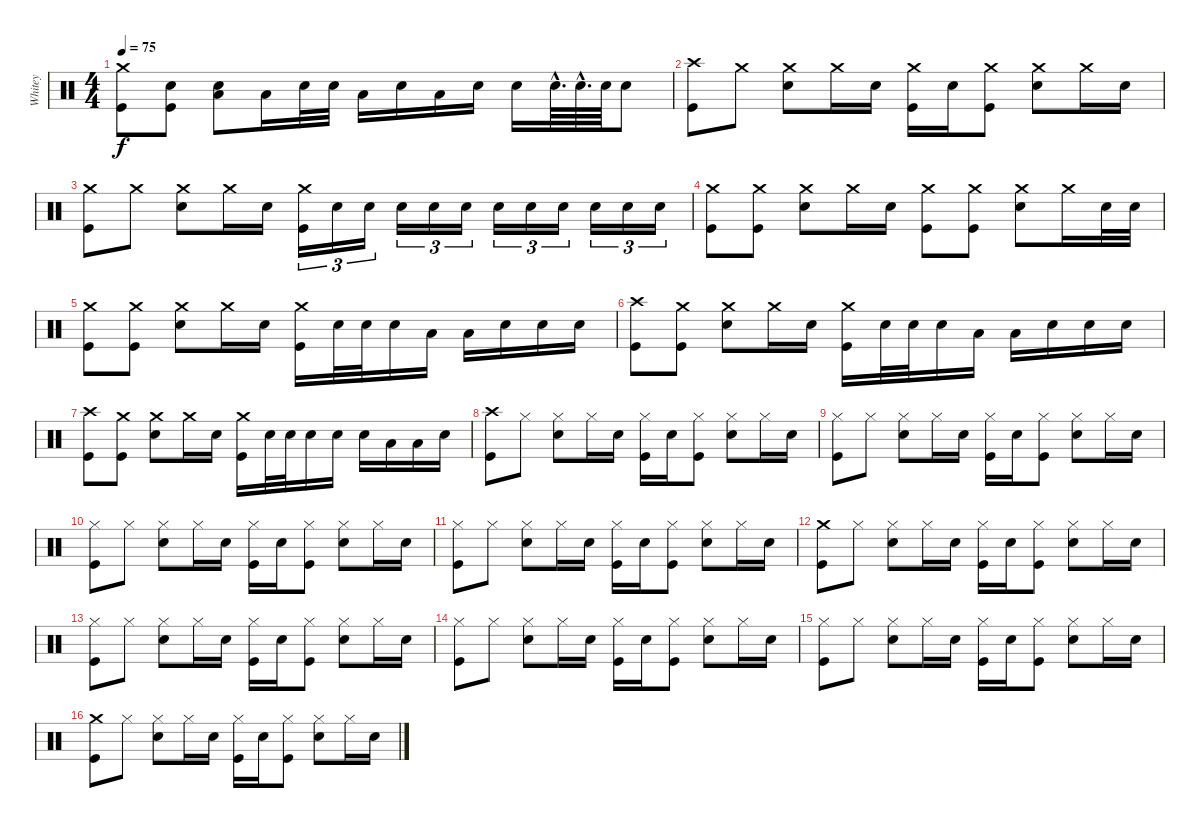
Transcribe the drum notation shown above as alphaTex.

\track ("Whitey" "Whitey") {instrument percussion}
\staff {score}
\articulation defaults
\ts (4 4)
\tempo 75
\clef neutral
\ks c
("Crash medium (hit)" "Kick (hit)").8{dy f} ("Snare (hit) 2" "Kick (hit)").8 ("Low Tom (hit)" "Snare (hit) 2").8 "Low Tom (hit)".16 "Snare (hit) 2".32 "Snare (hit) 2".32 "Low Tom (hit)".16 "Snare (hit) 2".16 "Low Tom (hit)".16 "Snare (hit) 2".16 "Snare (hit) 2".16 "Snare (hit) 2"{hac}.64{d} "Snare (hit) 2"{hac}.64{d} "Snare (hit) 2".64 "Snare (hit) 2".8 |
("Crash high (hit)" "Kick (hit)").8 "Crash medium (hit)".8 ("Crash medium (hit)" "Snare (hit) 2").8 "Crash medium (hit)".16 "Snare (hit) 2".16 ("Crash medium (hit)" "Kick (hit)").16 "Snare (hit) 2".16 ("Crash medium (hit)" "Kick (hit)").8 ("Crash medium (hit)" "Snare (hit) 2").8 "Crash medium (hit)".16 "Snare (hit) 2".16 |
("Crash medium (hit)" "Kick (hit)").8 "Crash medium (hit)".8 ("Crash medium (hit)" "Snare (hit) 2").8 "Crash medium (hit)".16 "Snare (hit) 2".16 ("Crash medium (hit)" "Kick (hit)").16{tu (3 2)} "Snare (hit) 2".16{tu (3 2)} "Snare (hit) 2".16{tu (3 2)} "Snare (hit) 2".16{tu (3 2)} "Snare (hit) 2".16{tu (3 2)} "Snare (hit) 2".16{tu (3 2)} "Snare (hit) 2".16{tu (3 2)} "Snare (hit) 2".16{tu (3 2)} "Snare (hit) 2".16{tu (3 2)} "Snare (hit) 2".16{tu (3 2)} "Snare (hit) 2".16{tu (3 2)} "Snare (hit) 2".16{tu (3 2)} |
("Crash medium (hit)" "Kick (hit)").8 ("Crash medium (hit)" "Kick (hit)").8 ("Crash medium (hit)" "Snare (hit) 2").8 "Crash medium (hit)".16 "Snare (hit) 2".16 ("Crash medium (hit)" "Kick (hit)").8 ("Crash medium (hit)" "Kick (hit)").8 ("Crash medium (hit)" "Snare (hit) 2").8 "Crash medium (hit)".16 "Snare (hit) 2".32 "Snare (hit) 2".32 |
("Crash medium (hit)" "Kick (hit)").8 ("Crash medium (hit)" "Kick (hit)").8 ("Crash medium (hit)" "Snare (hit) 2").8 "Crash medium (hit)".16 "Snare (hit) 2".16 ("Crash medium (hit)" "Kick (hit)").16 "Snare (hit) 2".32 "Snare (hit) 2".32 "Snare (hit) 2".16 "Low Tom (hit)".16 "Low Tom (hit)".16 "Snare (hit) 2".16 "Snare (hit) 2".16 "Snare (hit) 2".16 |
("Crash high (hit)" "Kick (hit)").8 ("Crash medium (hit)" "Kick (hit)").8 ("Crash medium (hit)" "Snare (hit) 2").8 "Crash medium (hit)".16 "Snare (hit) 2".16 ("Crash medium (hit)" "Kick (hit)").16 "Snare (hit) 2".32 "Snare (hit) 2".32 "Snare (hit) 2".16 "Low Tom (hit)".16 "Low Tom (hit)".16 "Snare (hit) 2".16 "Snare (hit) 2".16 "Snare (hit) 2".16 |
("Crash high (hit)" "Kick (hit)").8 ("Crash medium (hit)" "Kick (hit)").8 ("Crash medium (hit)" "Snare (hit) 2").8 "Crash medium (hit)".16 "Snare (hit) 2".16 ("Crash medium (hit)" "Kick (hit)").16 "Snare (hit) 2".32 "Snare (hit) 2".32 "Snare (hit) 2".16 "Snare (hit) 2".16 "Snare (hit) 2".16 "Low Tom (hit)".16 "Low Tom (hit)".16 "Snare (hit) 2".16 |
("Crash high (hit)" "Kick (hit)").8 "Hi-Hat (closed)".8 ("Hi-Hat (closed)" "Snare (hit) 2").8 "Hi-Hat (closed)".16 "Snare (hit) 2".16 ("Hi-Hat (closed)" "Kick (hit)").16 "Snare (hit) 2".16 ("Hi-Hat (closed)" "Kick (hit)").8 ("Hi-Hat (closed)" "Snare (hit) 2").8 "Hi-Hat (closed)".16 "Snare (hit) 2".16 |
("Hi-Hat (closed)" "Kick (hit)").8 "Hi-Hat (closed)".8 ("Hi-Hat (closed)" "Snare (hit) 2").8 "Hi-Hat (closed)".16 "Snare (hit) 2".16 ("Hi-Hat (closed)" "Kick (hit)").16 "Snare (hit) 2".16 ("Hi-Hat (closed)" "Kick (hit)").8 ("Hi-Hat (closed)" "Snare (hit) 2").8 "Hi-Hat (closed)".16 "Snare (hit) 2".16 |
("Hi-Hat (closed)" "Kick (hit)").8 "Hi-Hat (closed)".8 ("Hi-Hat (closed)" "Snare (hit) 2").8 "Hi-Hat (closed)".16 "Snare (hit) 2".16 ("Hi-Hat (closed)" "Kick (hit)").16 "Snare (hit) 2".16 ("Hi-Hat (closed)" "Kick (hit)").8 ("Hi-Hat (closed)" "Snare (hit) 2").8 "Hi-Hat (closed)".16 "Snare (hit) 2".16 |
("Hi-Hat (closed)" "Kick (hit)").8 "Hi-Hat (closed)".8 ("Hi-Hat (closed)" "Snare (hit) 2").8 "Hi-Hat (closed)".16 "Snare (hit) 2".16 ("Hi-Hat (closed)" "Kick (hit)").16 "Snare (hit) 2".16 ("Hi-Hat (closed)" "Kick (hit)").8 ("Hi-Hat (closed)" "Snare (hit) 2").8 "Hi-Hat (closed)".16 "Snare (hit) 2".16 |
("Crash medium (hit)" "Kick (hit)").8 "Hi-Hat (closed)".8 ("Hi-Hat (closed)" "Snare (hit) 2").8 "Hi-Hat (closed)".16 "Snare (hit) 2".16 ("Hi-Hat (closed)" "Kick (hit)").16 "Snare (hit) 2".16 ("Hi-Hat (closed)" "Kick (hit)").8 ("Hi-Hat (closed)" "Snare (hit) 2").8 "Hi-Hat (closed)".16 "Snare (hit) 2".16 |
("Hi-Hat (closed)" "Kick (hit)").8 "Hi-Hat (closed)".8 ("Hi-Hat (closed)" "Snare (hit) 2").8 "Hi-Hat (closed)".16 "Snare (hit) 2".16 ("Hi-Hat (closed)" "Kick (hit)").16 "Snare (hit) 2".16 ("Hi-Hat (closed)" "Kick (hit)").8 ("Hi-Hat (closed)" "Snare (hit) 2").8 "Hi-Hat (closed)".16 "Snare (hit) 2".16 |
("Hi-Hat (closed)" "Kick (hit)").8 "Hi-Hat (closed)".8 ("Hi-Hat (closed)" "Snare (hit) 2").8 "Hi-Hat (closed)".16 "Snare (hit) 2".16 ("Hi-Hat (closed)" "Kick (hit)").16 "Snare (hit) 2".16 ("Hi-Hat (closed)" "Kick (hit)").8 ("Hi-Hat (closed)" "Snare (hit) 2").8 "Hi-Hat (closed)".16 "Snare (hit) 2".16 |
("Hi-Hat (closed)" "Kick (hit)").8 "Hi-Hat (closed)".8 ("Hi-Hat (closed)" "Snare (hit) 2").8 "Hi-Hat (closed)".16 "Snare (hit) 2".16 ("Hi-Hat (closed)" "Kick (hit)").16 "Snare (hit) 2".16 ("Hi-Hat (closed)" "Kick (hit)").8 ("Hi-Hat (closed)" "Snare (hit) 2").8 "Hi-Hat (closed)".16 "Snare (hit) 2".16 |
("Crash medium (hit)" "Kick (hit)").8 "Hi-Hat (closed)".8 ("Hi-Hat (closed)" "Snare (hit) 2").8 "Hi-Hat (closed)".16 "Snare (hit) 2".16 ("Hi-Hat (closed)" "Kick (hit)").16 "Snare (hit) 2".16 ("Hi-Hat (closed)" "Kick (hit)").8 ("Hi-Hat (closed)" "Snare (hit) 2").8 "Hi-Hat (closed)".16 "Snare (hit) 2".16
